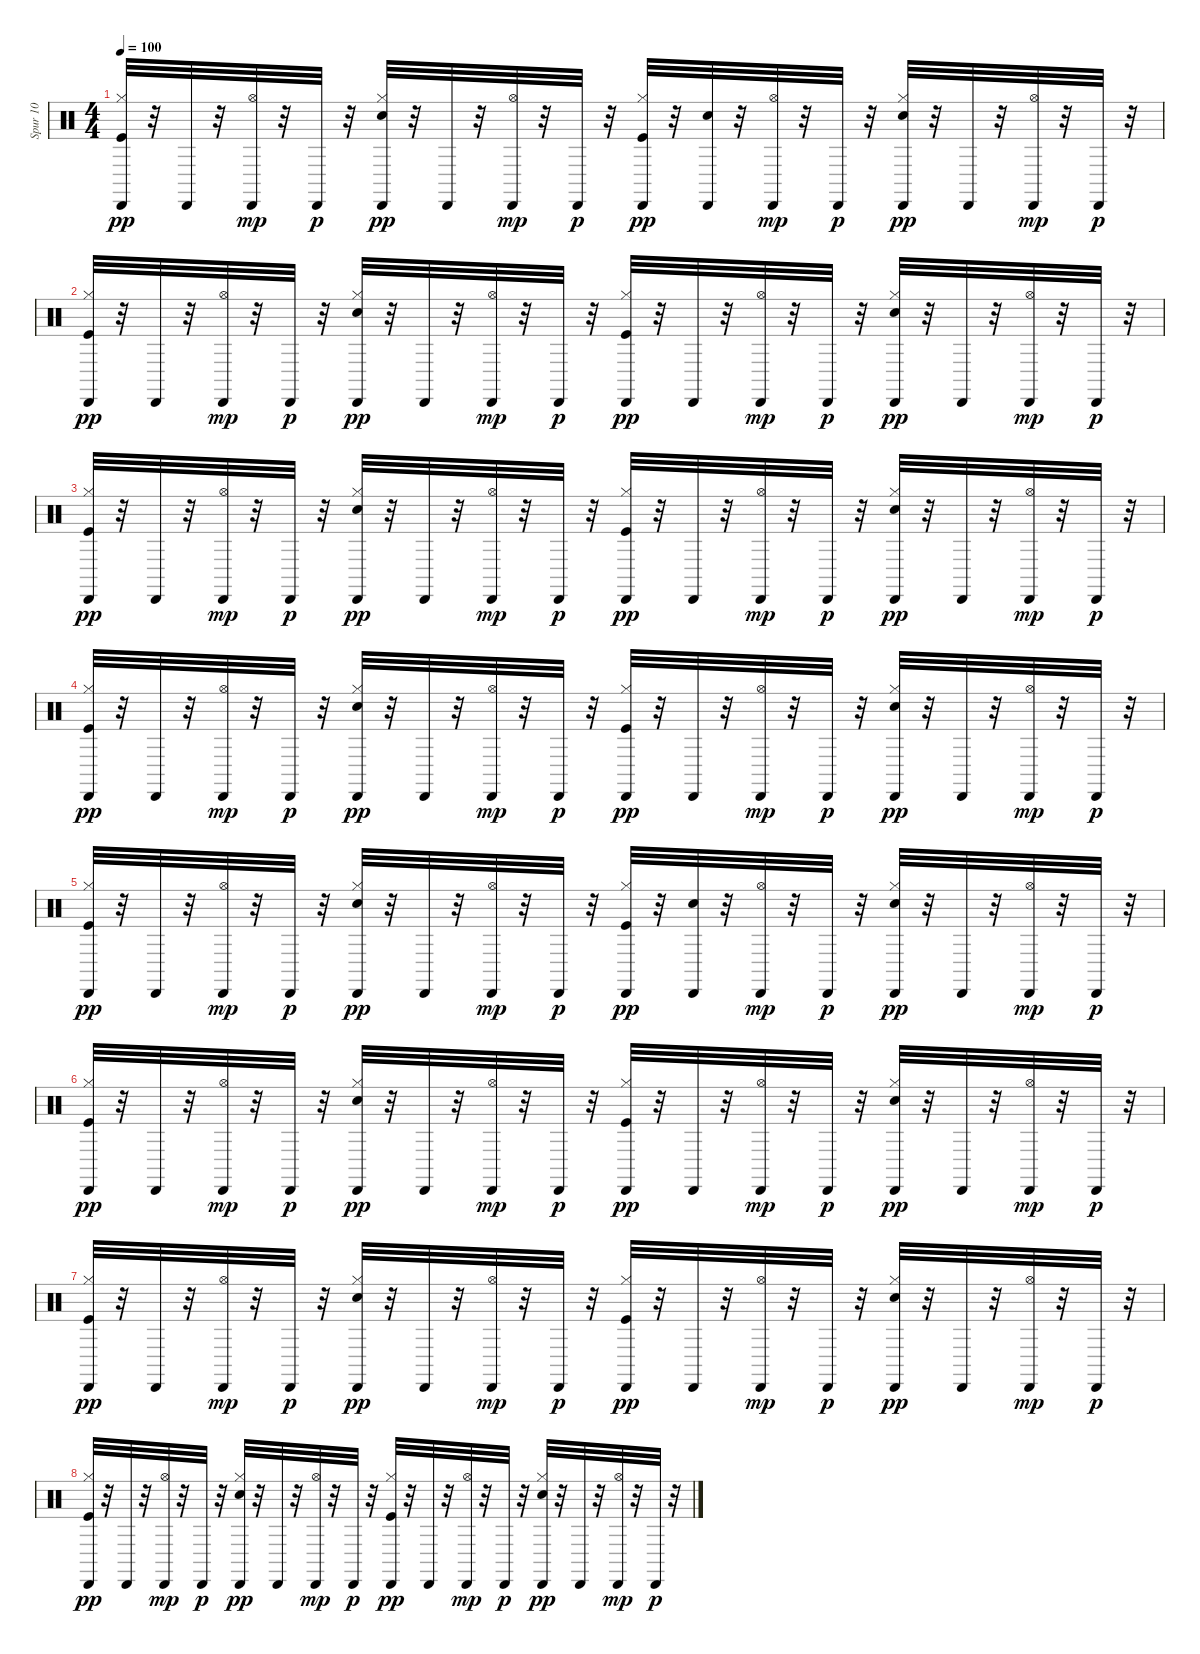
\track ("Spur 10" "Spur 10") {instrument percussion}
\staff {score}
\articulation defaults
\ts (4 4)
\tempo 100
\clef neutral
\ks c
("Kick (hit)" "Hi-Hat (closed)" "Cabasa (hit)").32{dy pp} r.32 "Cabasa (hit)".32 r.32 ("Hi-Hat (open)" "Cabasa (hit)").32{dy mp} r.32 "Cabasa (hit)".32{dy p} r.32 ("Electric Snare (hit)" "Hi-Hat (closed)" "Cabasa (hit)").32{dy pp} r.32 "Cabasa (hit)".32 r.32 ("Hi-Hat (open)" "Cabasa (hit)").32{dy mp} r.32 "Cabasa (hit)".32{dy p} r.32 ("Kick (hit)" "Hi-Hat (closed)" "Cabasa (hit)").32{dy pp} r.32 ("Electric Snare (hit)" "Cabasa (hit)").32 r.32 ("Hi-Hat (open)" "Cabasa (hit)").32{dy mp} r.32 "Cabasa (hit)".32{dy p} r.32 ("Electric Snare (hit)" "Hi-Hat (closed)" "Cabasa (hit)").32{dy pp} r.32 "Cabasa (hit)".32 r.32 ("Hi-Hat (open)" "Cabasa (hit)").32{dy mp} r.32 "Cabasa (hit)".32{dy p} r.32 |
("Kick (hit)" "Hi-Hat (closed)" "Cabasa (hit)").32{dy pp} r.32 "Cabasa (hit)".32 r.32 ("Hi-Hat (open)" "Cabasa (hit)").32{dy mp} r.32 "Cabasa (hit)".32{dy p} r.32 ("Electric Snare (hit)" "Hi-Hat (closed)" "Cabasa (hit)").32{dy pp} r.32 "Cabasa (hit)".32 r.32 ("Hi-Hat (open)" "Cabasa (hit)").32{dy mp} r.32 "Cabasa (hit)".32{dy p} r.32 ("Kick (hit)" "Hi-Hat (closed)" "Cabasa (hit)").32{dy pp} r.32 "Cabasa (hit)".32 r.32 ("Hi-Hat (open)" "Cabasa (hit)").32{dy mp} r.32 "Cabasa (hit)".32{dy p} r.32 ("Electric Snare (hit)" "Hi-Hat (closed)" "Cabasa (hit)").32{dy pp} r.32 "Cabasa (hit)".32 r.32 ("Hi-Hat (open)" "Cabasa (hit)").32{dy mp} r.32 "Cabasa (hit)".32{dy p} r.32 |
("Kick (hit)" "Hi-Hat (closed)" "Cabasa (hit)").32{dy pp} r.32 "Cabasa (hit)".32 r.32 ("Hi-Hat (open)" "Cabasa (hit)").32{dy mp} r.32 "Cabasa (hit)".32{dy p} r.32 ("Electric Snare (hit)" "Hi-Hat (closed)" "Cabasa (hit)").32{dy pp} r.32 "Cabasa (hit)".32 r.32 ("Hi-Hat (open)" "Cabasa (hit)").32{dy mp} r.32 "Cabasa (hit)".32{dy p} r.32 ("Kick (hit)" "Hi-Hat (closed)" "Cabasa (hit)").32{dy pp} r.32 "Cabasa (hit)".32 r.32 ("Hi-Hat (open)" "Cabasa (hit)").32{dy mp} r.32 "Cabasa (hit)".32{dy p} r.32 ("Electric Snare (hit)" "Hi-Hat (closed)" "Cabasa (hit)").32{dy pp} r.32 "Cabasa (hit)".32 r.32 ("Hi-Hat (open)" "Cabasa (hit)").32{dy mp} r.32 "Cabasa (hit)".32{dy p} r.32 |
("Kick (hit)" "Hi-Hat (closed)" "Cabasa (hit)").32{dy pp} r.32 "Cabasa (hit)".32 r.32 ("Hi-Hat (open)" "Cabasa (hit)").32{dy mp} r.32 "Cabasa (hit)".32{dy p} r.32 ("Electric Snare (hit)" "Hi-Hat (closed)" "Cabasa (hit)").32{dy pp} r.32 "Cabasa (hit)".32 r.32 ("Hi-Hat (open)" "Cabasa (hit)").32{dy mp} r.32 "Cabasa (hit)".32{dy p} r.32 ("Kick (hit)" "Hi-Hat (closed)" "Cabasa (hit)").32{dy pp} r.32 "Cabasa (hit)".32 r.32 ("Hi-Hat (open)" "Cabasa (hit)").32{dy mp} r.32 "Cabasa (hit)".32{dy p} r.32 ("Electric Snare (hit)" "Hi-Hat (closed)" "Cabasa (hit)").32{dy pp} r.32 "Cabasa (hit)".32 r.32 ("Hi-Hat (open)" "Cabasa (hit)").32{dy mp} r.32 "Cabasa (hit)".32{dy p} r.32 |
("Kick (hit)" "Hi-Hat (closed)" "Cabasa (hit)").32{dy pp} r.32 "Cabasa (hit)".32 r.32 ("Hi-Hat (open)" "Cabasa (hit)").32{dy mp} r.32 "Cabasa (hit)".32{dy p} r.32 ("Electric Snare (hit)" "Hi-Hat (closed)" "Cabasa (hit)").32{dy pp} r.32 "Cabasa (hit)".32 r.32 ("Hi-Hat (open)" "Cabasa (hit)").32{dy mp} r.32 "Cabasa (hit)".32{dy p} r.32 ("Kick (hit)" "Hi-Hat (closed)" "Cabasa (hit)").32{dy pp} r.32 ("Electric Snare (hit)" "Cabasa (hit)").32 r.32 ("Hi-Hat (open)" "Cabasa (hit)").32{dy mp} r.32 "Cabasa (hit)".32{dy p} r.32 ("Electric Snare (hit)" "Hi-Hat (closed)" "Cabasa (hit)").32{dy pp} r.32 "Cabasa (hit)".32 r.32 ("Hi-Hat (open)" "Cabasa (hit)").32{dy mp} r.32 "Cabasa (hit)".32{dy p} r.32 |
("Kick (hit)" "Hi-Hat (closed)" "Cabasa (hit)").32{dy pp} r.32 "Cabasa (hit)".32 r.32 ("Hi-Hat (open)" "Cabasa (hit)").32{dy mp} r.32 "Cabasa (hit)".32{dy p} r.32 ("Electric Snare (hit)" "Hi-Hat (closed)" "Cabasa (hit)").32{dy pp} r.32 "Cabasa (hit)".32 r.32 ("Hi-Hat (open)" "Cabasa (hit)").32{dy mp} r.32 "Cabasa (hit)".32{dy p} r.32 ("Kick (hit)" "Hi-Hat (closed)" "Cabasa (hit)").32{dy pp} r.32 "Cabasa (hit)".32 r.32 ("Hi-Hat (open)" "Cabasa (hit)").32{dy mp} r.32 "Cabasa (hit)".32{dy p} r.32 ("Electric Snare (hit)" "Hi-Hat (closed)" "Cabasa (hit)").32{dy pp} r.32 "Cabasa (hit)".32 r.32 ("Hi-Hat (open)" "Cabasa (hit)").32{dy mp} r.32 "Cabasa (hit)".32{dy p} r.32 |
("Kick (hit)" "Hi-Hat (closed)" "Cabasa (hit)").32{dy pp} r.32 "Cabasa (hit)".32 r.32 ("Hi-Hat (open)" "Cabasa (hit)").32{dy mp} r.32 "Cabasa (hit)".32{dy p} r.32 ("Electric Snare (hit)" "Hi-Hat (closed)" "Cabasa (hit)").32{dy pp} r.32 "Cabasa (hit)".32 r.32 ("Hi-Hat (open)" "Cabasa (hit)").32{dy mp} r.32 "Cabasa (hit)".32{dy p} r.32 ("Kick (hit)" "Hi-Hat (closed)" "Cabasa (hit)").32{dy pp} r.32 "Cabasa (hit)".32 r.32 ("Hi-Hat (open)" "Cabasa (hit)").32{dy mp} r.32 "Cabasa (hit)".32{dy p} r.32 ("Electric Snare (hit)" "Hi-Hat (closed)" "Cabasa (hit)").32{dy pp} r.32 "Cabasa (hit)".32 r.32 ("Hi-Hat (open)" "Cabasa (hit)").32{dy mp} r.32 "Cabasa (hit)".32{dy p} r.32 |
("Kick (hit)" "Hi-Hat (closed)" "Cabasa (hit)").32{dy pp} r.32 "Cabasa (hit)".32 r.32 ("Hi-Hat (open)" "Cabasa (hit)").32{dy mp} r.32 "Cabasa (hit)".32{dy p} r.32 ("Electric Snare (hit)" "Hi-Hat (closed)" "Cabasa (hit)").32{dy pp} r.32 "Cabasa (hit)".32 r.32 ("Hi-Hat (open)" "Cabasa (hit)").32{dy mp} r.32 "Cabasa (hit)".32{dy p} r.32 ("Kick (hit)" "Hi-Hat (closed)" "Cabasa (hit)").32{dy pp} r.32 "Cabasa (hit)".32 r.32 ("Hi-Hat (open)" "Cabasa (hit)").32{dy mp} r.32 "Cabasa (hit)".32{dy p} r.32 ("Electric Snare (hit)" "Hi-Hat (closed)" "Cabasa (hit)").32{dy pp} r.32 "Cabasa (hit)".32 r.32 ("Hi-Hat (open)" "Cabasa (hit)").32{dy mp} r.32 "Cabasa (hit)".32{dy p} r.32
